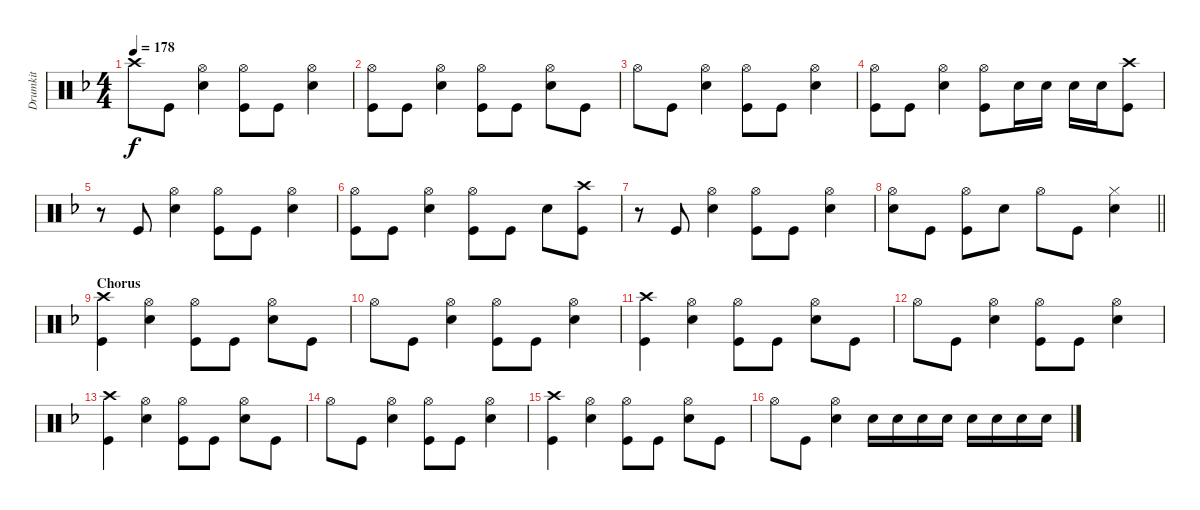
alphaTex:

\track ("Drumkit" "Drumkit") {instrument percussion}
\staff {score}
\articulation defaults
\ts (4 4)
\tempo 178
\clef neutral
\ks f "Crash high (hit)"{t}.8{dy f} "Kick (hit)".8
("Hi-Hat (open)" "Snare (hit) 2").4 ("Hi-Hat (open)" "Kick (hit)").8 "Kick (hit)".8 ("Hi-Hat (open)" "Snare (hit) 2").4 |
("Hi-Hat (open)" "Kick (hit)").8 "Kick (hit)".8 ("Hi-Hat (open)" "Snare (hit) 2").4 ("Hi-Hat (open)" "Kick (hit)").8 "Kick (hit)".8 ("Hi-Hat (open)" "Snare (hit) 2").8 "Kick (hit)".8 |
"Hi-Hat (open)".8 "Kick (hit)".8 ("Hi-Hat (open)" "Snare (hit) 2").4 ("Hi-Hat (open)" "Kick (hit)").8 "Kick (hit)".8 ("Hi-Hat (open)" "Snare (hit) 2").4 |
("Hi-Hat (open)" "Kick (hit)").8 "Kick (hit)".8 ("Hi-Hat (open)" "Snare (hit) 2").4 ("Hi-Hat (open)" "Kick (hit)").8 "Snare (hit) 2".16 "Snare (hit) 2".16 "Snare (hit) 2".16 "Snare (hit) 2".16 ("Crash high (hit)" "Kick (hit)").8 |
r.8 "Kick (hit)".8 ("Hi-Hat (open)" "Snare (hit) 2").4 ("Hi-Hat (open)" "Kick (hit)").8 "Kick (hit)".8 ("Hi-Hat (open)" "Snare (hit) 2").4 |
("Hi-Hat (open)" "Kick (hit)").8 "Kick (hit)".8 ("Hi-Hat (open)" "Snare (hit) 2").4 ("Hi-Hat (open)" "Kick (hit)").8 "Kick (hit)".8 "Snare (hit) 2".8 ("Crash high (hit)" "Kick (hit)").8 |
r.8 "Kick (hit)".8 ("Hi-Hat (open)" "Snare (hit) 2").4 ("Hi-Hat (open)" "Kick (hit)").8 "Kick (hit)".8 ("Hi-Hat (open)" "Snare (hit) 2").4 |
\barLineRight lightlight
("Hi-Hat (open)" "Snare (hit) 2").8 "Kick (hit)".8 ("Hi-Hat (open)" "Kick (hit)").8 "Snare (hit) 2".8 "Hi-Hat (open)".8 "Kick (hit)".8 ("Hi-Hat (closed)" "Snare (hit) 2").4 |
\section ("" "Chorus")
("Crash high (hit)" "Kick (hit)").4 ("Hi-Hat (open)" "Snare (hit) 2").4 ("Hi-Hat (open)" "Kick (hit)").8 "Kick (hit)".8 ("Hi-Hat (open)" "Snare (hit) 2").8 "Kick (hit)".8 |
"Hi-Hat (open)".8 "Kick (hit)".8 ("Hi-Hat (open)" "Snare (hit) 2").4 ("Hi-Hat (open)" "Kick (hit)").8 "Kick (hit)".8 ("Hi-Hat (open)" "Snare (hit) 2").4 |
("Crash high (hit)" "Kick (hit)").4 ("Hi-Hat (open)" "Snare (hit) 2").4 ("Hi-Hat (open)" "Kick (hit)").8 "Kick (hit)".8 ("Hi-Hat (open)" "Snare (hit) 2").8 "Kick (hit)".8 |
"Hi-Hat (open)".8 "Kick (hit)".8 ("Hi-Hat (open)" "Snare (hit) 2").4 ("Hi-Hat (open)" "Kick (hit)").8 "Kick (hit)".8 ("Hi-Hat (open)" "Snare (hit) 2").4 |
("Crash high (hit)" "Kick (hit)").4 ("Hi-Hat (open)" "Snare (hit) 2").4 ("Hi-Hat (open)" "Kick (hit)").8 "Kick (hit)".8 ("Hi-Hat (open)" "Snare (hit) 2").8 "Kick (hit)".8 |
"Hi-Hat (open)".8 "Kick (hit)".8 ("Hi-Hat (open)" "Snare (hit) 2").4 ("Hi-Hat (open)" "Kick (hit)").8 "Kick (hit)".8 ("Hi-Hat (open)" "Snare (hit) 2").4 |
("Crash high (hit)" "Kick (hit)").4 ("Hi-Hat (open)" "Snare (hit) 2").4 ("Hi-Hat (open)" "Kick (hit)").8 "Kick (hit)".8 ("Hi-Hat (open)" "Snare (hit) 2").8 "Kick (hit)".8 |
"Hi-Hat (open)".8 "Kick (hit)".8 ("Hi-Hat (open)" "Snare (hit) 2").4 "Snare (hit) 2".16 "Snare (hit) 2".16 "Snare (hit) 2".16 "Snare (hit) 2".16 "Snare (hit) 2".16 "Snare (hit) 2".16 "Snare (hit) 2".16 "Snare (hit) 2".16
